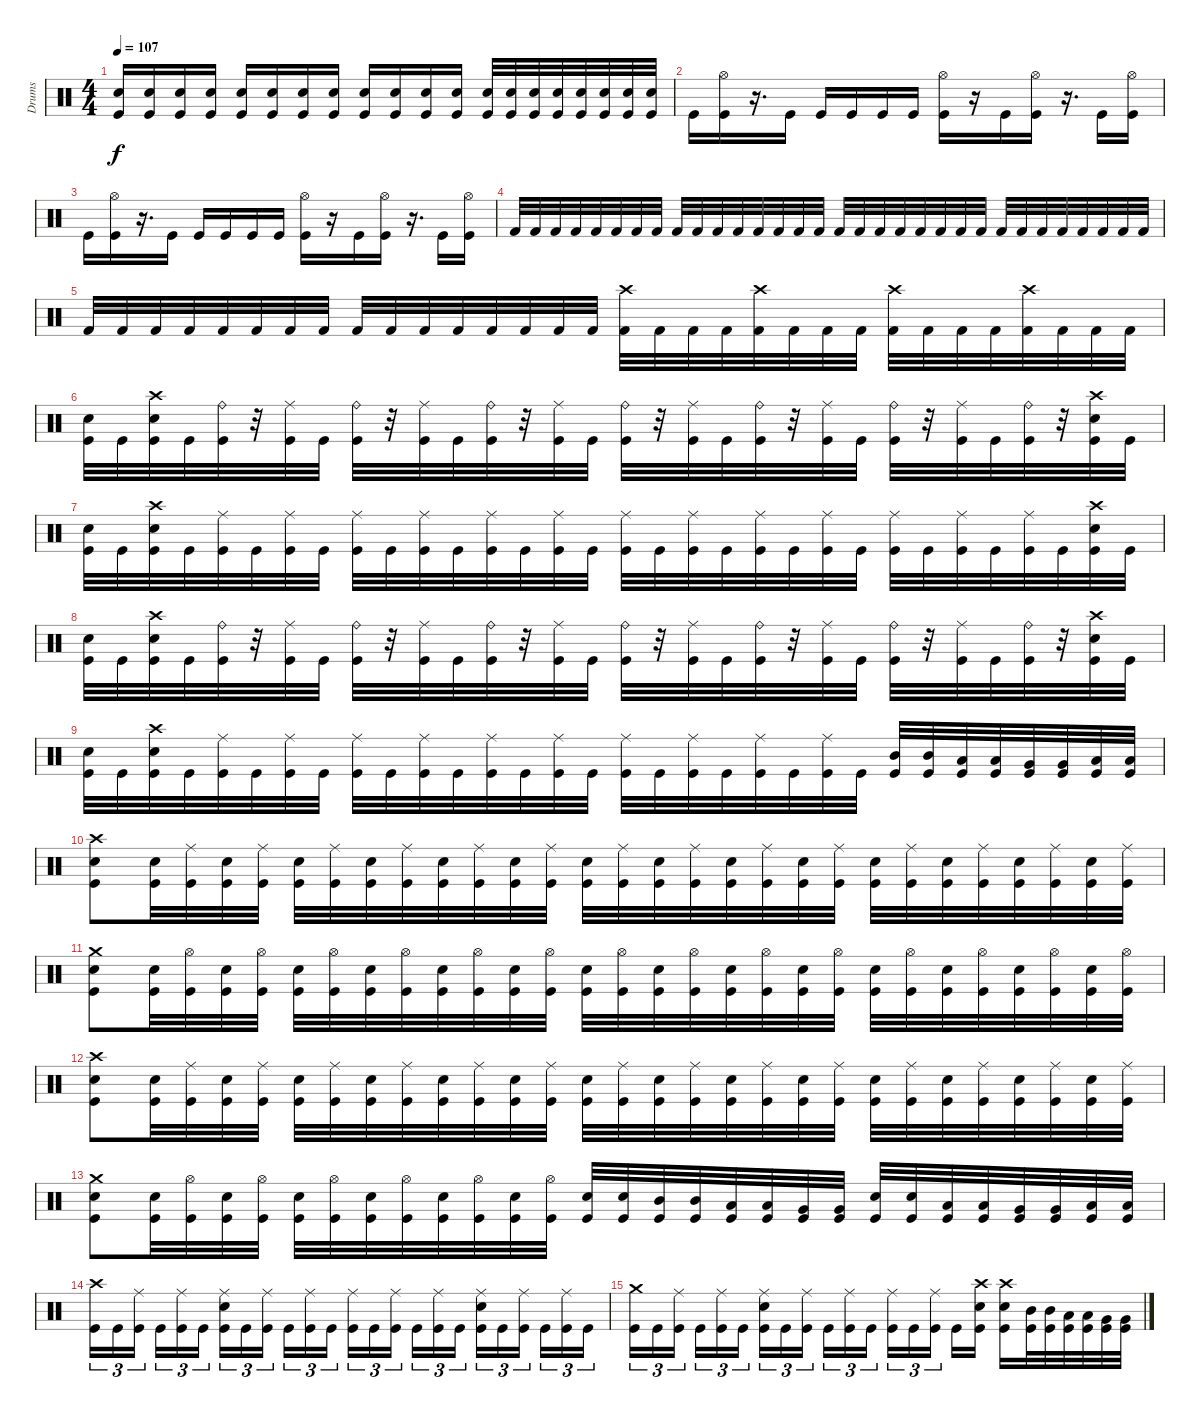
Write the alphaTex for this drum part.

\track ("Drums" "Drums") {instrument percussion}
\staff
\articulation defaults
\ts (4 4)
\tempo 107
\clef neutral
\ks c
("Electric Snare (hit)" "Kick (hit)").16{dy f} ("Electric Snare (hit)" "Kick (hit)").16 ("Electric Snare (hit)" "Kick (hit)").16 ("Electric Snare (hit)" "Kick (hit)").16 ("Electric Snare (hit)" "Kick (hit)").16 ("Electric Snare (hit)" "Kick (hit)").16 ("Electric Snare (hit)" "Kick (hit)").16 ("Electric Snare (hit)" "Kick (hit)").16 ("Electric Snare (hit)" "Kick (hit)").16 ("Electric Snare (hit)" "Kick (hit)").16 ("Electric Snare (hit)" "Kick (hit)").16 ("Electric Snare (hit)" "Kick (hit)").16 ("Electric Snare (hit)" "Kick (hit)").32 ("Electric Snare (hit)" "Kick (hit)").32 ("Electric Snare (hit)" "Kick (hit)").32 ("Electric Snare (hit)" "Kick (hit)").32 ("Electric Snare (hit)" "Kick (hit)").32 ("Electric Snare (hit)" "Kick (hit)").32 ("Electric Snare (hit)" "Kick (hit)").32 ("Electric Snare (hit)" "Kick (hit)").32 |
"Kick (hit)".16 ("Hi-Hat (open)" "Kick (hit)").16 r.16{d} "Kick (hit)".16 "Kick (hit)".16 "Kick (hit)".16 "Kick (hit)".16 "Kick (hit)".16 ("Hi-Hat (open)" "Kick (hit)").16 r.16 "Kick (hit)".16 ("Hi-Hat (open)" "Kick (hit)").16 r.16{d} "Kick (hit)".16 ("Hi-Hat (open)" "Kick (hit)").16 |
"Kick (hit)".16 ("Hi-Hat (open)" "Kick (hit)").16 r.16{d} "Kick (hit)".16 "Kick (hit)".16 "Kick (hit)".16 "Kick (hit)".16 "Kick (hit)".16 ("Hi-Hat (open)" "Kick (hit)").16 r.16 "Kick (hit)".16 ("Hi-Hat (open)" "Kick (hit)").16 r.16{d} "Kick (hit)".16 ("Hi-Hat (open)" "Kick (hit)").16 |
"Kick (hit) 2".32 "Kick (hit) 2".32 "Kick (hit) 2".32 "Kick (hit) 2".32 "Kick (hit) 2".32 "Kick (hit) 2".32 "Kick (hit) 2".32 "Kick (hit) 2".32 "Kick (hit) 2".32 "Kick (hit) 2".32 "Kick (hit) 2".32 "Kick (hit) 2".32 "Kick (hit) 2".32 "Kick (hit) 2".32 "Kick (hit) 2".32 "Kick (hit) 2".32 "Kick (hit) 2".32 "Kick (hit) 2".32 "Kick (hit) 2".32 "Kick (hit) 2".32 "Kick (hit) 2".32 "Kick (hit) 2".32 "Kick (hit) 2".32 "Kick (hit) 2".32 "Kick (hit) 2".32 "Kick (hit) 2".32 "Kick (hit) 2".32 "Kick (hit) 2".32 "Kick (hit) 2".32 "Kick (hit) 2".32 "Kick (hit) 2".32 "Kick (hit) 2".32 |
"Kick (hit) 2".32 "Kick (hit) 2".32 "Kick (hit) 2".32 "Kick (hit) 2".32 "Kick (hit) 2".32 "Kick (hit) 2".32 "Kick (hit) 2".32 "Kick (hit) 2".32 "Kick (hit) 2".32 "Kick (hit) 2".32 "Kick (hit) 2".32 "Kick (hit) 2".32 "Kick (hit) 2".32 "Kick (hit) 2".32 "Kick (hit) 2".32 "Kick (hit) 2".32 ("Crash high (hit)" "Kick (hit) 2").32 "Kick (hit) 2".32 "Kick (hit) 2".32 "Kick (hit) 2".32 ("Crash high (hit)" "Kick (hit) 2").32 "Kick (hit) 2".32 "Kick (hit) 2".32 "Kick (hit) 2".32 ("Crash high (hit)" "Kick (hit) 2").32 "Kick (hit) 2".32 "Kick (hit) 2".32 "Kick (hit) 2".32 ("Crash high (hit)" "Kick (hit) 2").32 "Kick (hit) 2".32 "Kick (hit) 2".32 "Kick (hit) 2".32 |
("Snare (hit) 2" "Kick (hit)").32 "Kick (hit)".32 ("Crash high (hit)" "Snare (hit) 2" "Kick (hit)").32 "Kick (hit)".32 ("Ride (bell)" "Kick (hit)").32 r.32 ("Ride (middle)" "Kick (hit)").32 "Kick (hit)".32 ("Ride (bell)" "Kick (hit)").32 r.32 ("Ride (middle)" "Kick (hit)").32 "Kick (hit)".32 ("Ride (bell)" "Kick (hit)").32 r.32 ("Ride (middle)" "Kick (hit)").32 "Kick (hit)".32 ("Ride (bell)" "Kick (hit)").32 r.32 ("Ride (middle)" "Kick (hit)").32 "Kick (hit)".32 ("Ride (bell)" "Kick (hit)").32 r.32 ("Ride (middle)" "Kick (hit)").32 "Kick (hit)".32 ("Ride (bell)" "Kick (hit)").32 r.32 ("Ride (middle)" "Kick (hit)").32 "Kick (hit)".32 ("Ride (bell)" "Kick (hit)").32 r.32 ("Crash high (hit)" "Snare (hit) 2" "Kick (hit)").32 "Kick (hit)".32 |
("Snare (hit) 2" "Kick (hit)").32 "Kick (hit)".32 ("Crash high (hit)" "Snare (hit) 2" "Kick (hit)").32 "Kick (hit)".32 ("Ride (middle)" "Kick (hit)").32 "Kick (hit)".32 ("Ride (middle)" "Kick (hit)").32 "Kick (hit)".32 ("Ride (middle)" "Kick (hit)").32 "Kick (hit)".32 ("Ride (middle)" "Kick (hit)").32 "Kick (hit)".32 ("Ride (middle)" "Kick (hit)").32 "Kick (hit)".32 ("Ride (middle)" "Kick (hit)").32 "Kick (hit)".32 ("Ride (middle)" "Kick (hit)").32 "Kick (hit)".32 ("Ride (middle)" "Kick (hit)").32 "Kick (hit)".32 ("Ride (middle)" "Kick (hit)").32 "Kick (hit)".32 ("Ride (middle)" "Kick (hit)").32 "Kick (hit)".32 ("Ride (middle)" "Kick (hit)").32 "Kick (hit)".32 ("Ride (middle)" "Kick (hit)").32 "Kick (hit)".32 ("Ride (middle)" "Kick (hit)").32 "Kick (hit)".32 ("Crash high (hit)" "Snare (hit) 2" "Kick (hit)").32 "Kick (hit)".32 |
("Snare (hit) 2" "Kick (hit)").32 "Kick (hit)".32 ("Crash high (hit)" "Snare (hit) 2" "Kick (hit)").32 "Kick (hit)".32 ("Ride (bell)" "Kick (hit)").32 r.32 ("Ride (middle)" "Kick (hit)").32 "Kick (hit)".32 ("Ride (bell)" "Kick (hit)").32 r.32 ("Ride (middle)" "Kick (hit)").32 "Kick (hit)".32 ("Ride (bell)" "Kick (hit)").32 r.32 ("Ride (middle)" "Kick (hit)").32 "Kick (hit)".32 ("Ride (bell)" "Kick (hit)").32 r.32 ("Ride (middle)" "Kick (hit)").32 "Kick (hit)".32 ("Ride (bell)" "Kick (hit)").32 r.32 ("Ride (middle)" "Kick (hit)").32 "Kick (hit)".32 ("Ride (bell)" "Kick (hit)").32 r.32 ("Ride (middle)" "Kick (hit)").32 "Kick (hit)".32 ("Ride (bell)" "Kick (hit)").32 r.32 ("Crash high (hit)" "Snare (hit) 2" "Kick (hit)").32 "Kick (hit)".32 |
("Snare (hit) 2" "Kick (hit)").32 "Kick (hit)".32 ("Crash high (hit)" "Snare (hit) 2" "Kick (hit)").32 "Kick (hit)".32 ("Ride (middle)" "Kick (hit)").32 "Kick (hit)".32 ("Ride (middle)" "Kick (hit)").32 "Kick (hit)".32 ("Ride (middle)" "Kick (hit)").32 "Kick (hit)".32 ("Ride (middle)" "Kick (hit)").32 "Kick (hit)".32 ("Ride (middle)" "Kick (hit)").32 "Kick (hit)".32 ("Ride (middle)" "Kick (hit)").32 "Kick (hit)".32 ("Ride (middle)" "Kick (hit)").32 "Kick (hit)".32 ("Ride (middle)" "Kick (hit)").32 "Kick (hit)".32 ("Ride (middle)" "Kick (hit)").32 "Kick (hit)".32 ("Ride (middle)" "Kick (hit)").32 "Kick (hit)".32 ("Mid Tom (hit)" "Kick (hit)").32 ("Mid Tom (hit)" "Kick (hit)").32 ("Low Tom (hit)" "Kick (hit)").32 ("Low Tom (hit)" "Kick (hit)").32 ("Very Low Tom (hit)" "Kick (hit)").32 ("Very Low Tom (hit)" "Kick (hit)").32 ("Low Floor Tom (hit)" "Kick (hit)").32 ("Low Floor Tom (hit)" "Kick (hit)").32 |
("Crash high (hit)" "Electric Snare (hit)" "Kick (hit)").8 ("Electric Snare (hit)" "Kick (hit)").32 ("Ride (middle)" "Kick (hit)").32 ("Electric Snare (hit)" "Kick (hit)").32 ("Ride (middle)" "Kick (hit)").32 ("Electric Snare (hit)" "Kick (hit)").32 ("Ride (middle)" "Kick (hit)").32 ("Electric Snare (hit)" "Kick (hit)").32 ("Ride (middle)" "Kick (hit)").32 ("Electric Snare (hit)" "Kick (hit)").32 ("Ride (middle)" "Kick (hit)").32 ("Electric Snare (hit)" "Kick (hit)").32 ("Ride (middle)" "Kick (hit)").32 ("Electric Snare (hit)" "Kick (hit)").32 ("Ride (middle)" "Kick (hit)").32 ("Electric Snare (hit)" "Kick (hit)").32 ("Ride (middle)" "Kick (hit)").32 ("Electric Snare (hit)" "Kick (hit)").32 ("Ride (middle)" "Kick (hit)").32 ("Electric Snare (hit)" "Kick (hit)").32 ("Ride (middle)" "Kick (hit)").32 ("Electric Snare (hit)" "Kick (hit)").32 ("Ride (middle)" "Kick (hit)").32 ("Electric Snare (hit)" "Kick (hit)").32 ("Ride (middle)" "Kick (hit)").32 ("Electric Snare (hit)" "Kick (hit)").32 ("Ride (middle)" "Kick (hit)").32 ("Electric Snare (hit)" "Kick (hit)").32 ("Ride (middle)" "Kick (hit)").32 |
("Crash medium (hit)" "Electric Snare (hit)" "Kick (hit)").8 ("Electric Snare (hit)" "Kick (hit)").32 ("Hi-Hat (open)" "Kick (hit)").32 ("Electric Snare (hit)" "Kick (hit)").32 ("Hi-Hat (open)" "Kick (hit)").32 ("Electric Snare (hit)" "Kick (hit)").32 ("Hi-Hat (open)" "Kick (hit)").32 ("Electric Snare (hit)" "Kick (hit)").32 ("Hi-Hat (open)" "Kick (hit)").32 ("Electric Snare (hit)" "Kick (hit)").32 ("Hi-Hat (open)" "Kick (hit)").32 ("Electric Snare (hit)" "Kick (hit)").32 ("Hi-Hat (open)" "Kick (hit)").32 ("Electric Snare (hit)" "Kick (hit)").32 ("Hi-Hat (open)" "Kick (hit)").32 ("Electric Snare (hit)" "Kick (hit)").32 ("Hi-Hat (open)" "Kick (hit)").32 ("Electric Snare (hit)" "Kick (hit)").32 ("Hi-Hat (open)" "Kick (hit)").32 ("Electric Snare (hit)" "Kick (hit)").32 ("Hi-Hat (open)" "Kick (hit)").32 ("Electric Snare (hit)" "Kick (hit)").32 ("Hi-Hat (open)" "Kick (hit)").32 ("Electric Snare (hit)" "Kick (hit)").32 ("Hi-Hat (open)" "Kick (hit)").32 ("Electric Snare (hit)" "Kick (hit)").32 ("Hi-Hat (open)" "Kick (hit)").32 ("Electric Snare (hit)" "Kick (hit)").32 ("Hi-Hat (open)" "Kick (hit)").32 |
("Crash high (hit)" "Electric Snare (hit)" "Kick (hit)").8 ("Electric Snare (hit)" "Kick (hit)").32 ("Ride (middle)" "Kick (hit)").32 ("Electric Snare (hit)" "Kick (hit)").32 ("Ride (middle)" "Kick (hit)").32 ("Electric Snare (hit)" "Kick (hit)").32 ("Ride (middle)" "Kick (hit)").32 ("Electric Snare (hit)" "Kick (hit)").32 ("Ride (middle)" "Kick (hit)").32 ("Electric Snare (hit)" "Kick (hit)").32 ("Ride (middle)" "Kick (hit)").32 ("Electric Snare (hit)" "Kick (hit)").32 ("Ride (middle)" "Kick (hit)").32 ("Electric Snare (hit)" "Kick (hit)").32 ("Ride (middle)" "Kick (hit)").32 ("Electric Snare (hit)" "Kick (hit)").32 ("Ride (middle)" "Kick (hit)").32 ("Electric Snare (hit)" "Kick (hit)").32 ("Ride (middle)" "Kick (hit)").32 ("Electric Snare (hit)" "Kick (hit)").32 ("Ride (middle)" "Kick (hit)").32 ("Electric Snare (hit)" "Kick (hit)").32 ("Ride (middle)" "Kick (hit)").32 ("Electric Snare (hit)" "Kick (hit)").32 ("Ride (middle)" "Kick (hit)").32 ("Electric Snare (hit)" "Kick (hit)").32 ("Ride (middle)" "Kick (hit)").32 ("Electric Snare (hit)" "Kick (hit)").32 ("Ride (middle)" "Kick (hit)").32 |
("Crash medium (hit)" "Electric Snare (hit)" "Kick (hit)").8 ("Electric Snare (hit)" "Kick (hit)").32 ("Hi-Hat (open)" "Kick (hit)").32 ("Electric Snare (hit)" "Kick (hit)").32 ("Hi-Hat (open)" "Kick (hit)").32 ("Electric Snare (hit)" "Kick (hit)").32 ("Hi-Hat (open)" "Kick (hit)").32 ("Electric Snare (hit)" "Kick (hit)").32 ("Hi-Hat (open)" "Kick (hit)").32 ("Electric Snare (hit)" "Kick (hit)").32 ("Hi-Hat (open)" "Kick (hit)").32 ("Electric Snare (hit)" "Kick (hit)").32 ("Hi-Hat (open)" "Kick (hit)").32 ("Electric Snare (hit)" "Kick (hit)").32 ("Electric Snare (hit)" "Kick (hit)").32 ("Mid Tom (hit)" "Kick (hit)").32 ("Mid Tom (hit)" "Kick (hit)").32 ("Low Tom (hit)" "Kick (hit)").32 ("Low Tom (hit)" "Kick (hit)").32 ("Very Low Tom (hit)" "Kick (hit)").32 ("Very Low Tom (hit)" "Kick (hit)").32 ("Electric Snare (hit)" "Kick (hit)").32 ("Electric Snare (hit)" "Kick (hit)").32 ("Low Tom (hit)" "Kick (hit)").32 ("Low Tom (hit)" "Kick (hit)").32 ("Very Low Tom (hit)" "Kick (hit)").32 ("Very Low Tom (hit)" "Kick (hit)").32 ("Low Floor Tom (hit)" "Kick (hit)").32 ("Low Floor Tom (hit)" "Kick (hit)").32 |
("Crash high (hit)" "Kick (hit)").16{tu (3 2)} "Kick (hit)".16{tu (3 2)} ("Ride (middle)" "Kick (hit)").16{tu (3 2) beam splitsecondary} "Kick (hit)".16{tu (3 2)} ("Ride (middle)" "Kick (hit)").16{tu (3 2)} "Kick (hit)".16{tu (3 2)} ("Ride (middle)" "Electric Snare (hit)" "Kick (hit)").16{tu (3 2)} "Kick (hit)".16{tu (3 2)} ("Ride (middle)" "Kick (hit)").16{tu (3 2) beam splitsecondary} "Kick (hit)".16{tu (3 2)} ("Ride (middle)" "Kick (hit)").16{tu (3 2)} "Kick (hit)".16{tu (3 2)} ("Ride (middle)" "Kick (hit)").16{tu (3 2)} "Kick (hit)".16{tu (3 2)} ("Ride (middle)" "Kick (hit)").16{tu (3 2) beam splitsecondary} "Kick (hit)".16{tu (3 2)} ("Ride (middle)" "Kick (hit)").16{tu (3 2)} "Kick (hit)".16{tu (3 2)} ("Ride (middle)" "Electric Snare (hit)" "Kick (hit)").16{tu (3 2)} "Kick (hit)".16{tu (3 2)} ("Ride (middle)" "Kick (hit)").16{tu (3 2) beam splitsecondary} "Kick (hit)".16{tu (3 2)} ("Ride (middle)" "Kick (hit)").16{tu (3 2)} "Kick (hit)".16{tu (3 2)} |
("Crash medium (hit)" "Kick (hit)").16{tu (3 2)} "Kick (hit)".16{tu (3 2)} ("Ride (middle)" "Kick (hit)").16{tu (3 2) beam splitsecondary} "Kick (hit)".16{tu (3 2)} ("Ride (middle)" "Kick (hit)").16{tu (3 2)} "Kick (hit)".16{tu (3 2)} ("Ride (middle)" "Electric Snare (hit)" "Kick (hit)").16{tu (3 2)} "Kick (hit)".16{tu (3 2)} ("Ride (middle)" "Kick (hit)").16{tu (3 2) beam splitsecondary} "Kick (hit)".16{tu (3 2)} ("Ride (middle)" "Kick (hit)").16{tu (3 2)} "Kick (hit)".16{tu (3 2)} ("Ride (middle)" "Kick (hit)").16{tu (3 2)} "Kick (hit)".16{tu (3 2)} ("Ride (middle)" "Kick (hit)").16{tu (3 2) beam splitsecondary} "Kick (hit)".16 ("Crash high (hit)" "Electric Snare (hit)" "Kick (hit)").16 ("Crash high (hit)" "Electric Snare (hit)" "Kick (hit)").16 ("Mid Tom (hit)" "Kick (hit)").32 ("Mid Tom (hit)" "Kick (hit)").32 ("Low Tom (hit)" "Kick (hit)").32 ("Low Tom (hit)" "Kick (hit)").32 ("Very Low Tom (hit)" "Kick (hit)").32 ("Very Low Tom (hit)" "Kick (hit)").32
